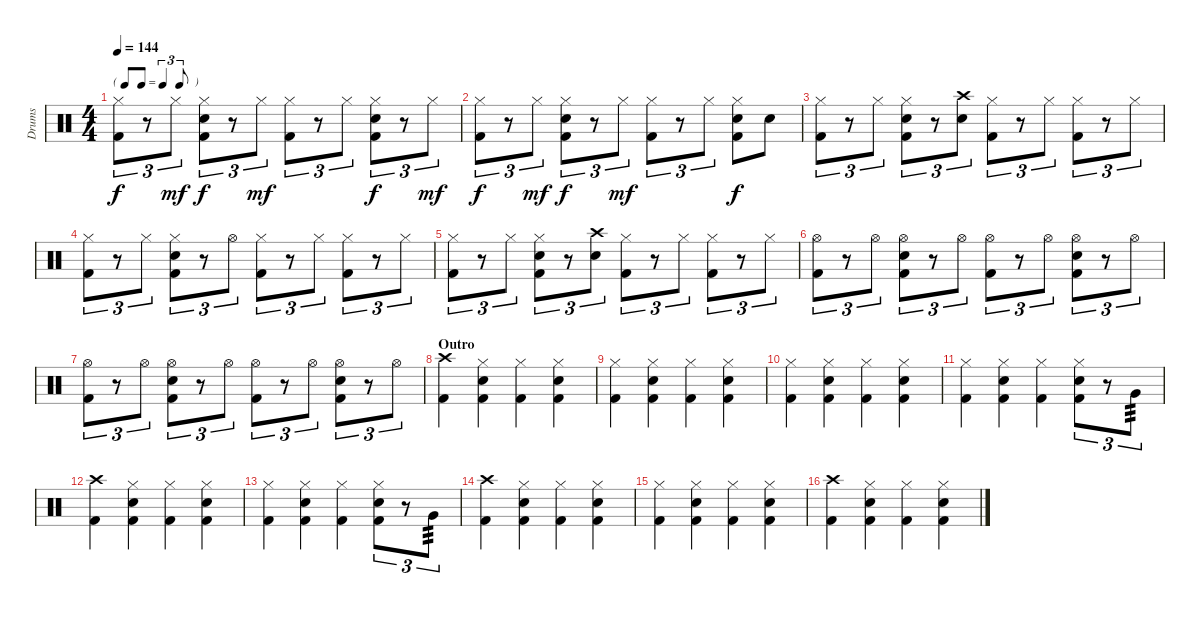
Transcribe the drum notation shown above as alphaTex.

\track ("Drums" "Drums") {instrument percussion}
\staff {score}
\articulation defaults
\ts (4 4)
\tf triplet8th
\tempo 144
\clef neutral
\ks c
("Hi-Hat (closed)" "Kick (hit) 2").8{tu (3 2) dy f} r.8{tu (3 2)} "Hi-Hat (closed)".8{tu (3 2) dy mf} ("Hi-Hat (closed)" "Snare (hit) 2" "Kick (hit) 2").8{tu (3 2) dy f} r.8{tu (3 2)} "Hi-Hat (closed)".8{tu (3 2) dy mf} ("Hi-Hat (closed)" "Kick (hit) 2").8{tu (3 2)} r.8{tu (3 2)} "Hi-Hat (closed)".8{tu (3 2)} ("Hi-Hat (closed)" "Snare (hit) 2" "Kick (hit) 2").8{tu (3 2) dy f} r.8{tu (3 2)} "Hi-Hat (closed)".8{tu (3 2) dy mf} |
("Hi-Hat (closed)" "Kick (hit) 2").8{tu (3 2) dy f} r.8{tu (3 2)} "Hi-Hat (closed)".8{tu (3 2) dy mf} ("Hi-Hat (closed)" "Snare (hit) 2" "Kick (hit) 2").8{tu (3 2) dy f} r.8{tu (3 2)} "Hi-Hat (closed)".8{tu (3 2) dy mf} ("Hi-Hat (closed)" "Kick (hit) 2").8{tu (3 2)} r.8{tu (3 2)} "Hi-Hat (closed)".8{tu (3 2)} ("Hi-Hat (closed)" "Snare (hit) 2" "Kick (hit) 2").8{dy f} "Snare (hit) 2".8 |
("Hi-Hat (closed)" "Kick (hit) 2").8{tu (3 2)} r.8{tu (3 2)} "Hi-Hat (closed)".8{tu (3 2)} ("Hi-Hat (closed)" "Snare (hit) 2" "Kick (hit) 2").8{tu (3 2)} r.8{tu (3 2)} ("Crash high (hit)" "Snare (hit) 2").8{tu (3 2)} ("Hi-Hat (closed)" "Kick (hit) 2").8{tu (3 2)} r.8{tu (3 2)} "Hi-Hat (closed)".8{tu (3 2)} ("Hi-Hat (closed)" "Kick (hit) 2").8{tu (3 2)} r.8{tu (3 2)} "Hi-Hat (closed)".8{tu (3 2)} |
("Hi-Hat (closed)" "Kick (hit) 2").8{tu (3 2)} r.8{tu (3 2)} "Hi-Hat (closed)".8{tu (3 2)} ("Hi-Hat (closed)" "Snare (hit) 2" "Kick (hit) 2").8{tu (3 2)} r.8{tu (3 2)} "Hi-Hat (open)".8{tu (3 2)} ("Hi-Hat (closed)" "Kick (hit) 2").8{tu (3 2)} r.8{tu (3 2)} "Hi-Hat (closed)".8{tu (3 2)} ("Hi-Hat (closed)" "Kick (hit) 2").8{tu (3 2)} r.8{tu (3 2)} "Hi-Hat (closed)".8{tu (3 2)} |
("Hi-Hat (closed)" "Kick (hit) 2").8{tu (3 2)} r.8{tu (3 2)} "Hi-Hat (closed)".8{tu (3 2)} ("Hi-Hat (closed)" "Snare (hit) 2" "Kick (hit) 2").8{tu (3 2)} r.8{tu (3 2)} ("Crash high (hit)" "Snare (hit) 2").8{tu (3 2)} ("Hi-Hat (closed)" "Kick (hit) 2").8{tu (3 2)} r.8{tu (3 2)} "Hi-Hat (closed)".8{tu (3 2)} ("Hi-Hat (closed)" "Kick (hit) 2").8{tu (3 2)} r.8{tu (3 2)} "Hi-Hat (closed)".8{tu (3 2)} |
("Hi-Hat (open)" "Kick (hit) 2").8{tu (3 2)} r.8{tu (3 2)} "Hi-Hat (open)".8{tu (3 2)} ("Hi-Hat (open)" "Snare (hit) 2" "Kick (hit) 2").8{tu (3 2)} r.8{tu (3 2)} "Hi-Hat (open)".8{tu (3 2)} ("Hi-Hat (open)" "Kick (hit) 2").8{tu (3 2)} r.8{tu (3 2)} "Hi-Hat (open)".8{tu (3 2)} ("Hi-Hat (open)" "Snare (hit) 2" "Kick (hit) 2").8{tu (3 2)} r.8{tu (3 2)} "Hi-Hat (open)".8{tu (3 2)} |
("Hi-Hat (open)" "Kick (hit) 2").8{tu (3 2)} r.8{tu (3 2)} "Hi-Hat (open)".8{tu (3 2)} ("Hi-Hat (open)" "Snare (hit) 2" "Kick (hit) 2").8{tu (3 2)} r.8{tu (3 2)} "Hi-Hat (open)".8{tu (3 2)} ("Hi-Hat (open)" "Kick (hit) 2").8{tu (3 2)} r.8{tu (3 2)} "Hi-Hat (open)".8{tu (3 2)} ("Hi-Hat (open)" "Snare (hit) 2" "Kick (hit) 2").8{tu (3 2)} r.8{tu (3 2)} "Hi-Hat (open)".8{tu (3 2)} |
\section ("" "Outro")
("Crash high (hit)" "Kick (hit) 2").4 ("Hi-Hat (closed)" "Snare (hit) 2" "Kick (hit) 2").4 ("Hi-Hat (closed)" "Kick (hit) 2").4 ("Hi-Hat (closed)" "Snare (hit) 2" "Kick (hit) 2").4 |
("Hi-Hat (closed)" "Kick (hit) 2").4 ("Hi-Hat (closed)" "Snare (hit) 2" "Kick (hit) 2").4 ("Hi-Hat (closed)" "Kick (hit) 2").4 ("Hi-Hat (closed)" "Snare (hit) 2" "Kick (hit) 2").4 |
("Hi-Hat (closed)" "Kick (hit) 2").4 ("Hi-Hat (closed)" "Snare (hit) 2" "Kick (hit) 2").4 ("Hi-Hat (closed)" "Kick (hit) 2").4 ("Hi-Hat (closed)" "Snare (hit) 2" "Kick (hit) 2").4 |
("Hi-Hat (closed)" "Kick (hit) 2").4 ("Hi-Hat (closed)" "Snare (hit) 2" "Kick (hit) 2").4 ("Hi-Hat (closed)" "Kick (hit) 2").4 ("Hi-Hat (closed)" "Snare (hit) 2" "Kick (hit) 2").8{tu (3 2)} r.8{tu (3 2)} "Very Low Tom (hit)".8{tu (3 2) tp 3} |
("Crash high (hit)" "Kick (hit) 2").4 ("Hi-Hat (closed)" "Snare (hit) 2" "Kick (hit) 2").4 ("Hi-Hat (closed)" "Kick (hit) 2").4 ("Hi-Hat (closed)" "Snare (hit) 2" "Kick (hit) 2").4 |
("Hi-Hat (closed)" "Kick (hit) 2").4 ("Hi-Hat (closed)" "Snare (hit) 2" "Kick (hit) 2").4 ("Hi-Hat (closed)" "Kick (hit) 2").4 ("Hi-Hat (closed)" "Snare (hit) 2" "Kick (hit) 2").8{tu (3 2)} r.8{tu (3 2)} "Very Low Tom (hit)".8{tu (3 2) tp 3} |
("Crash high (hit)" "Kick (hit) 2").4 ("Hi-Hat (closed)" "Snare (hit) 2" "Kick (hit) 2").4 ("Hi-Hat (closed)" "Kick (hit) 2").4 ("Hi-Hat (closed)" "Snare (hit) 2" "Kick (hit) 2").4 |
("Hi-Hat (closed)" "Kick (hit) 2").4 ("Hi-Hat (closed)" "Snare (hit) 2" "Kick (hit) 2").4 ("Hi-Hat (closed)" "Kick (hit) 2").4 ("Hi-Hat (closed)" "Snare (hit) 2" "Kick (hit) 2").4 |
("Crash high (hit)" "Kick (hit) 2").4 ("Hi-Hat (closed)" "Snare (hit) 2" "Kick (hit) 2").4 ("Hi-Hat (closed)" "Kick (hit) 2").4 ("Hi-Hat (closed)" "Snare (hit) 2" "Kick (hit) 2").4
